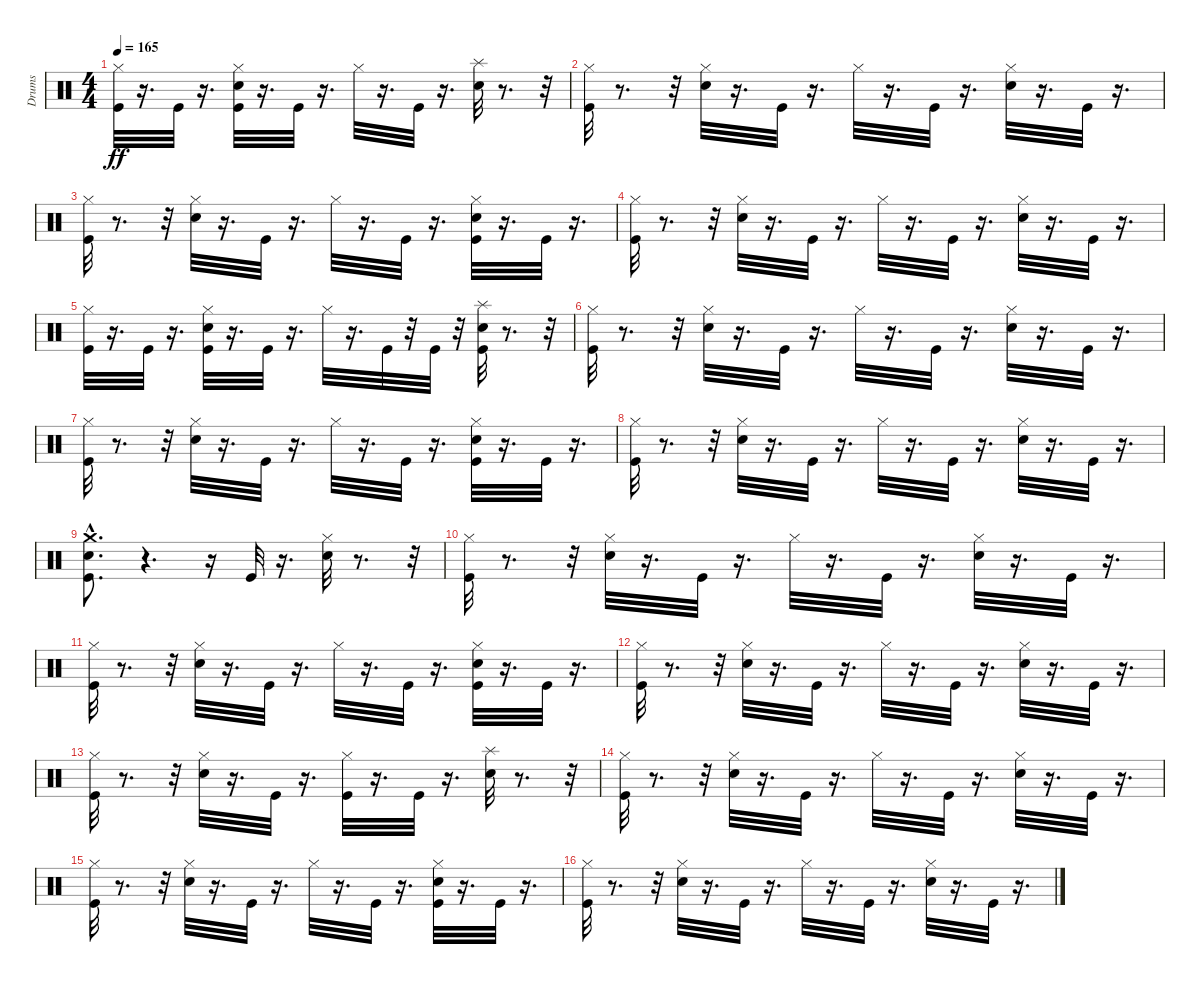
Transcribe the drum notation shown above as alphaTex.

\track ("Drums" "Drums") {instrument percussion}
\staff {score}
\articulation defaults
\ts (4 4)
\tempo 165
\clef neutral
\ks c
("Hi-Hat (closed)" "Kick (hit)").32{dy ff} r.16{d} "Kick (hit)".32 r.16{d} ("Kick (hit)" "Hi-Hat (closed)" "Electric Snare (hit)").32 r.16{d} "Kick (hit)".32 r.16{d} "Hi-Hat (closed)".32 r.16{d} "Kick (hit)".32 r.16{d} ("Splash (hit)" "Electric Snare (hit)").32 r.8{d} r.32 |
("Hi-Hat (closed)" "Kick (hit)").32 r.8{d} r.32 ("Electric Snare (hit)" "Hi-Hat (closed)").32 r.16{d} "Kick (hit)".32 r.16{d} "Hi-Hat (closed)".32 r.16{d} "Kick (hit)".32 r.16{d} ("Electric Snare (hit)" "Hi-Hat (closed)").32 r.16{d} "Kick (hit)".32 r.16{d} |
("Hi-Hat (closed)" "Kick (hit)").32 r.8{d} r.32 ("Electric Snare (hit)" "Hi-Hat (closed)").32 r.16{d} "Kick (hit)".32 r.16{d} "Hi-Hat (closed)".32 r.16{d} "Kick (hit)".32 r.16{d} ("Electric Snare (hit)" "Kick (hit)" "Hi-Hat (closed)").32 r.16{d} "Kick (hit)".32 r.16{d} |
("Hi-Hat (closed)" "Kick (hit)").32 r.8{d} r.32 ("Electric Snare (hit)" "Hi-Hat (closed)").32 r.16{d} "Kick (hit)".32 r.16{d} "Hi-Hat (closed)".32 r.16{d} "Kick (hit)".32 r.16{d} ("Electric Snare (hit)" "Hi-Hat (closed)").32 r.16{d} "Kick (hit)".32 r.16{d} |
("Hi-Hat (closed)" "Kick (hit)").32 r.16{d} "Kick (hit)".32 r.16{d} ("Kick (hit)" "Hi-Hat (closed)" "Electric Snare (hit)").32 r.16{d} "Kick (hit)".32 r.16{d} "Hi-Hat (closed)".32 r.16{d} "Kick (hit)".32 r.32 "Kick (hit)".32 r.32 ("Kick (hit)" "Splash (hit)" "Electric Snare (hit)").32 r.8{d} r.32 |
("Hi-Hat (closed)" "Kick (hit)").32 r.8{d} r.32 ("Electric Snare (hit)" "Hi-Hat (closed)").32 r.16{d} "Kick (hit)".32 r.16{d} "Hi-Hat (closed)".32 r.16{d} "Kick (hit)".32 r.16{d} ("Electric Snare (hit)" "Hi-Hat (closed)").32 r.16{d} "Kick (hit)".32 r.16{d} |
("Hi-Hat (closed)" "Kick (hit)").32 r.8{d} r.32 ("Electric Snare (hit)" "Hi-Hat (closed)").32 r.16{d} "Kick (hit)".32 r.16{d} "Hi-Hat (closed)".32 r.16{d} "Kick (hit)".32 r.16{d} ("Electric Snare (hit)" "Kick (hit)" "Hi-Hat (closed)").32 r.16{d} "Kick (hit)".32 r.16{d} |
("Hi-Hat (closed)" "Kick (hit)").32 r.8{d} r.32 ("Electric Snare (hit)" "Hi-Hat (closed)").32 r.16{d} "Kick (hit)".32 r.16{d} "Hi-Hat (closed)".32 r.16{d} "Kick (hit)".32 r.16{d} ("Electric Snare (hit)" "Hi-Hat (closed)").32 r.16{d} "Kick (hit)".32 r.16{d} |
("Kick (hit)" "Crash medium (hit)"{hac} "Electric Snare (hit)").8{d} r.4{d} r.16 "Kick (hit)".32 r.16{d} ("Hi-Hat (closed)" "Electric Snare (hit)").32 r.8{d} r.32 |
("Kick (hit)" "Hi-Hat (closed)").32 r.8{d} r.32 ("Hi-Hat (closed)" "Electric Snare (hit)").32 r.16{d} "Kick (hit)".32 r.16{d} "Hi-Hat (closed)".32 r.16{d} "Kick (hit)".32 r.16{d} ("Hi-Hat (closed)" "Electric Snare (hit)").32 r.16{d} "Kick (hit)".32 r.16{d} |
("Hi-Hat (closed)" "Kick (hit)").32 r.8{d} r.32 ("Electric Snare (hit)" "Hi-Hat (closed)").32 r.16{d} "Kick (hit)".32 r.16{d} "Hi-Hat (closed)".32 r.16{d} "Kick (hit)".32 r.16{d} ("Kick (hit)" "Hi-Hat (closed)" "Electric Snare (hit)").32 r.16{d} "Kick (hit)".32 r.16{d} |
("Hi-Hat (closed)" "Kick (hit)").32 r.8{d} r.32 ("Hi-Hat (closed)" "Electric Snare (hit)").32 r.16{d} "Kick (hit)".32 r.16{d} "Hi-Hat (closed)".32 r.16{d} "Kick (hit)".32 r.16{d} ("Hi-Hat (closed)" "Electric Snare (hit)").32 r.16{d} "Kick (hit)".32 r.16{d} |
("Hi-Hat (closed)" "Kick (hit)").32 r.8{d} r.32 ("Electric Snare (hit)" "Hi-Hat (closed)").32 r.16{d} "Kick (hit)".32 r.16{d} ("Hi-Hat (closed)" "Kick (hit)").32 r.16{d} "Kick (hit)".32 r.16{d} ("Electric Snare (hit)" "Splash (hit)").32 r.8{d} r.32 |
("Hi-Hat (closed)" "Kick (hit)").32 r.8{d} r.32 ("Electric Snare (hit)" "Hi-Hat (closed)").32 r.16{d} "Kick (hit)".32 r.16{d} "Hi-Hat (closed)".32 r.16{d} "Kick (hit)".32 r.16{d} ("Hi-Hat (closed)" "Electric Snare (hit)").32 r.16{d} "Kick (hit)".32 r.16{d} |
("Hi-Hat (closed)" "Kick (hit)").32 r.8{d} r.32 ("Electric Snare (hit)" "Hi-Hat (closed)").32 r.16{d} "Kick (hit)".32 r.16{d} "Hi-Hat (closed)".32 r.16{d} "Kick (hit)".32 r.16{d} ("Hi-Hat (closed)" "Kick (hit)" "Electric Snare (hit)").32 r.16{d} "Kick (hit)".32 r.16{d} |
("Hi-Hat (closed)" "Kick (hit)").32 r.8{d} r.32 ("Hi-Hat (closed)" "Electric Snare (hit)").32 r.16{d} "Kick (hit)".32 r.16{d} "Hi-Hat (closed)".32 r.16{d} "Kick (hit)".32 r.16{d} ("Hi-Hat (closed)" "Electric Snare (hit)").32 r.16{d} "Kick (hit)".32 r.16{d}
